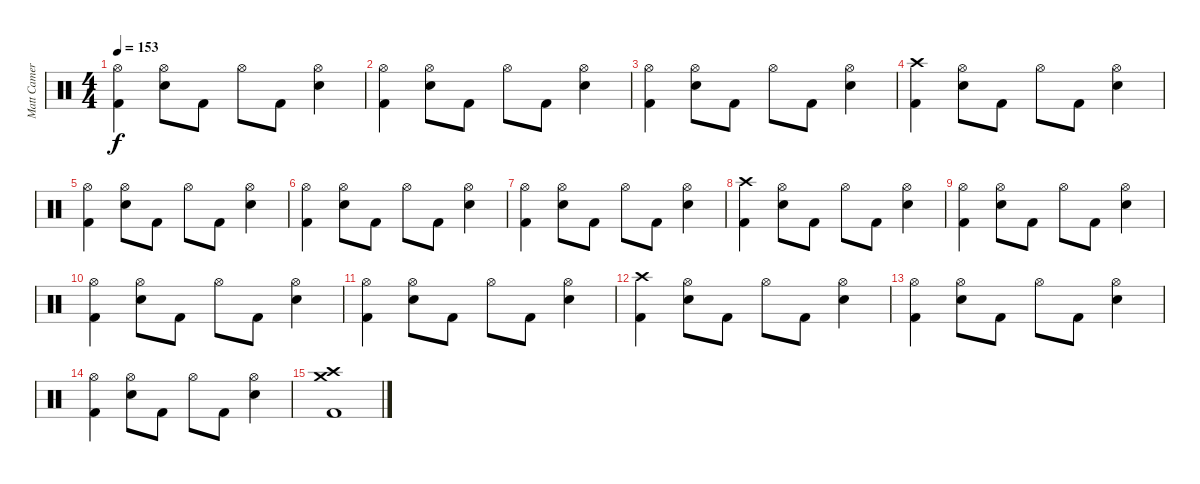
\track ("Matt Cameron" "Matt Camer") {instrument percussion}
\staff {score}
\articulation defaults
\ts (4 4)
\tempo 153
\clef neutral
\ks c
("Hi-Hat (open)" "Kick (hit) 2").4{dy f} ("Hi-Hat (open)" "Electric Snare (hit)").8 "Kick (hit) 2".8 "Hi-Hat (open)".8 "Kick (hit) 2".8 ("Hi-Hat (open)" "Electric Snare (hit)").4 |
("Hi-Hat (open)" "Kick (hit) 2").4 ("Hi-Hat (open)" "Electric Snare (hit)").8 "Kick (hit) 2".8 "Hi-Hat (open)".8 "Kick (hit) 2".8 ("Hi-Hat (open)" "Electric Snare (hit)").4 |
("Hi-Hat (open)" "Kick (hit) 2").4 ("Hi-Hat (open)" "Electric Snare (hit)").8 "Kick (hit) 2".8 "Hi-Hat (open)".8 "Kick (hit) 2".8 ("Hi-Hat (open)" "Electric Snare (hit)").4 |
("Crash high (hit)" "Kick (hit) 2").4 ("Hi-Hat (open)" "Electric Snare (hit)").8 "Kick (hit) 2".8 "Hi-Hat (open)".8 "Kick (hit) 2".8 ("Hi-Hat (open)" "Electric Snare (hit)").4 |
("Hi-Hat (open)" "Kick (hit) 2").4 ("Hi-Hat (open)" "Electric Snare (hit)").8 "Kick (hit) 2".8 "Hi-Hat (open)".8 "Kick (hit) 2".8 ("Hi-Hat (open)" "Electric Snare (hit)").4 |
("Hi-Hat (open)" "Kick (hit) 2").4 ("Hi-Hat (open)" "Electric Snare (hit)").8 "Kick (hit) 2".8 "Hi-Hat (open)".8 "Kick (hit) 2".8 ("Hi-Hat (open)" "Electric Snare (hit)").4 |
("Hi-Hat (open)" "Kick (hit) 2").4 ("Hi-Hat (open)" "Electric Snare (hit)").8 "Kick (hit) 2".8 "Hi-Hat (open)".8 "Kick (hit) 2".8 ("Hi-Hat (open)" "Electric Snare (hit)").4 |
("Crash high (hit)" "Kick (hit) 2").4 ("Hi-Hat (open)" "Electric Snare (hit)").8 "Kick (hit) 2".8 "Hi-Hat (open)".8 "Kick (hit) 2".8 ("Hi-Hat (open)" "Electric Snare (hit)").4 |
("Hi-Hat (open)" "Kick (hit) 2").4 ("Hi-Hat (open)" "Electric Snare (hit)").8 "Kick (hit) 2".8 "Hi-Hat (open)".8 "Kick (hit) 2".8 ("Hi-Hat (open)" "Electric Snare (hit)").4 |
("Hi-Hat (open)" "Kick (hit) 2").4 ("Hi-Hat (open)" "Electric Snare (hit)").8 "Kick (hit) 2".8 "Hi-Hat (open)".8 "Kick (hit) 2".8 ("Hi-Hat (open)" "Electric Snare (hit)").4 |
("Hi-Hat (open)" "Kick (hit) 2").4 ("Hi-Hat (open)" "Electric Snare (hit)").8 "Kick (hit) 2".8 "Hi-Hat (open)".8 "Kick (hit) 2".8 ("Hi-Hat (open)" "Electric Snare (hit)").4 |
("Crash high (hit)" "Kick (hit) 2").4 ("Hi-Hat (open)" "Electric Snare (hit)").8 "Kick (hit) 2".8 "Hi-Hat (open)".8 "Kick (hit) 2".8 ("Hi-Hat (open)" "Electric Snare (hit)").4 |
("Hi-Hat (open)" "Kick (hit) 2").4 ("Hi-Hat (open)" "Electric Snare (hit)").8 "Kick (hit) 2".8 "Hi-Hat (open)".8 "Kick (hit) 2".8 ("Hi-Hat (open)" "Electric Snare (hit)").4 |
("Hi-Hat (open)" "Kick (hit) 2").4 ("Hi-Hat (open)" "Electric Snare (hit)").8 "Kick (hit) 2".8 "Hi-Hat (open)".8 "Kick (hit) 2".8 ("Hi-Hat (open)" "Electric Snare (hit)").4 |
("Crash high (hit)" "Crash medium (hit)" "Kick (hit) 2").1
